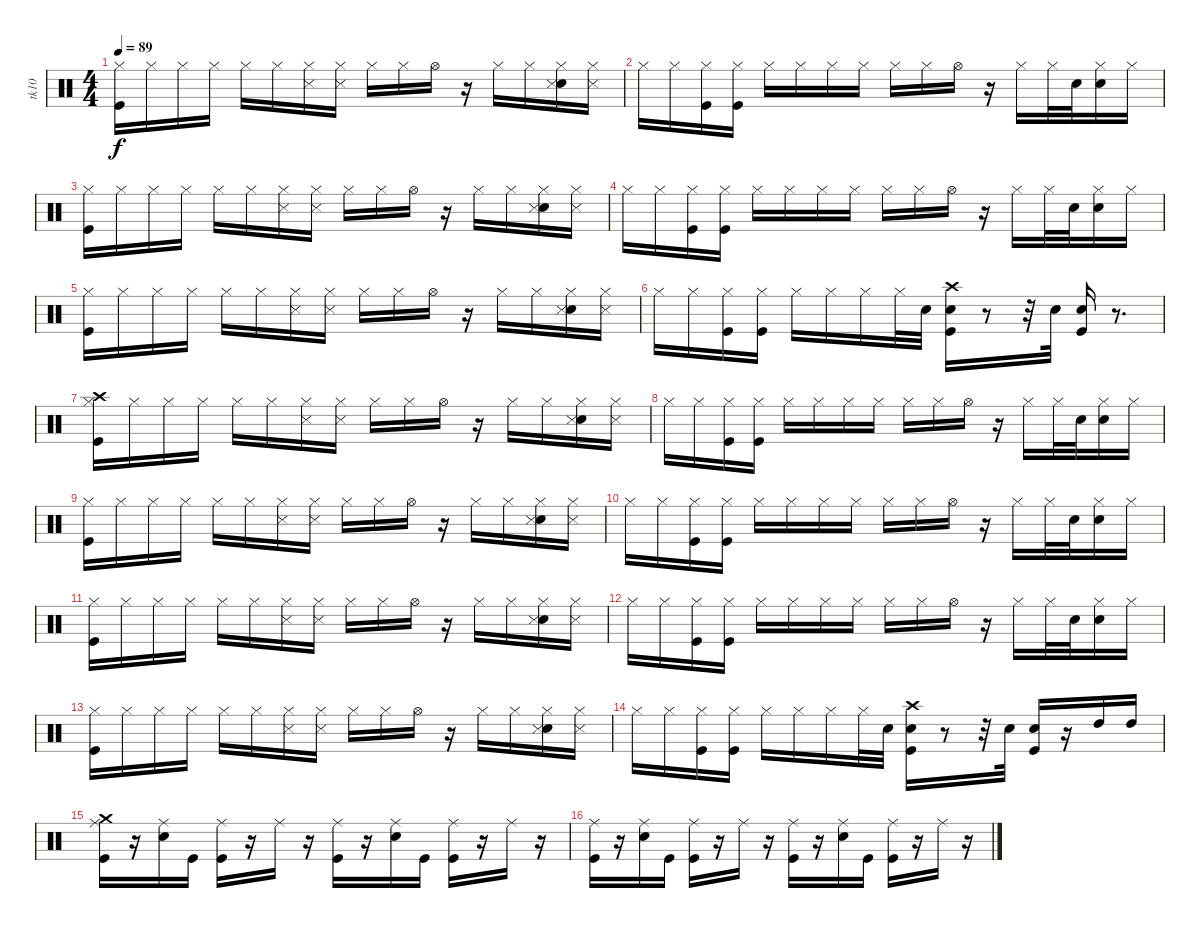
\track ("tk10" "tk10") {instrument percussion}
\staff {score}
\articulation defaults
\ts (4 4)
\tempo 89
\clef neutral
\ks c
("Kick (hit)" "Hi-Hat (closed)").16{dy f} "Hi-Hat (closed)".16 "Hi-Hat (closed)".16 "Hi-Hat (closed)".16 "Hi-Hat (closed)".16 "Hi-Hat (closed)".16 ("Snare (side stick) 3" "Hi-Hat (closed)").16 ("Snare (side stick) 3" "Hi-Hat (closed)").16 "Hi-Hat (closed)".16 "Hi-Hat (closed)".16 "Hi-Hat (open)".16 r.16 "Hi-Hat (closed)".16 "Hi-Hat (closed)".16 ("Snare (hit) 2" "Snare (side stick) 3" "Hi-Hat (closed)").16 ("Snare (side stick) 3" "Hi-Hat (closed)").16 |
"Hi-Hat (closed)".16 "Hi-Hat (closed)".16 ("Hi-Hat (closed)" "Kick (hit)").16 ("Hi-Hat (closed)" "Kick (hit)").16 "Hi-Hat (closed)".16 "Hi-Hat (closed)".16 "Hi-Hat (closed)".16 "Hi-Hat (closed)".16 "Hi-Hat (closed)".16 "Hi-Hat (closed)".16 "Hi-Hat (open)".16 r.16 "Hi-Hat (closed)".16 "Hi-Hat (closed)".32 "Snare (hit) 2".32 ("Snare (hit) 2" "Hi-Hat (closed)").16 "Hi-Hat (closed)".16 |
("Kick (hit)" "Hi-Hat (closed)").16 "Hi-Hat (closed)".16 "Hi-Hat (closed)".16 "Hi-Hat (closed)".16 "Hi-Hat (closed)".16 "Hi-Hat (closed)".16 ("Snare (side stick) 3" "Hi-Hat (closed)").16 ("Snare (side stick) 3" "Hi-Hat (closed)").16 "Hi-Hat (closed)".16 "Hi-Hat (closed)".16 "Hi-Hat (open)".16 r.16 "Hi-Hat (closed)".16 "Hi-Hat (closed)".16 ("Snare (hit) 2" "Snare (side stick) 3" "Hi-Hat (closed)").16 ("Snare (side stick) 3" "Hi-Hat (closed)").16 |
"Hi-Hat (closed)".16 "Hi-Hat (closed)".16 ("Hi-Hat (closed)" "Kick (hit)").16 ("Hi-Hat (closed)" "Kick (hit)").16 "Hi-Hat (closed)".16 "Hi-Hat (closed)".16 "Hi-Hat (closed)".16 "Hi-Hat (closed)".16 "Hi-Hat (closed)".16 "Hi-Hat (closed)".16 "Hi-Hat (open)".16 r.16 "Hi-Hat (closed)".16 "Hi-Hat (closed)".32 "Snare (hit) 2".32 ("Snare (hit) 2" "Hi-Hat (closed)").16 "Hi-Hat (closed)".16 |
("Kick (hit)" "Hi-Hat (closed)").16 "Hi-Hat (closed)".16 "Hi-Hat (closed)".16 "Hi-Hat (closed)".16 "Hi-Hat (closed)".16 "Hi-Hat (closed)".16 ("Snare (side stick) 3" "Hi-Hat (closed)").16 ("Snare (side stick) 3" "Hi-Hat (closed)").16 "Hi-Hat (closed)".16 "Hi-Hat (closed)".16 "Hi-Hat (open)".16 r.16 "Hi-Hat (closed)".16 "Hi-Hat (closed)".16 ("Snare (hit) 2" "Snare (side stick) 3" "Hi-Hat (closed)").16 ("Snare (side stick) 3" "Hi-Hat (closed)").16 |
"Hi-Hat (closed)".16 "Hi-Hat (closed)".16 ("Hi-Hat (closed)" "Kick (hit)").16 ("Hi-Hat (closed)" "Kick (hit)").16 "Hi-Hat (closed)".16 "Hi-Hat (closed)".16 "Hi-Hat (closed)".16 "Hi-Hat (closed)".32 "Snare (hit) 2".32 ("Snare (hit) 2" "Kick (hit)" "Crash high (hit)").16 r.8 r.32 "Snare (hit) 2".32 ("Kick (hit)" "Snare (hit) 2").16 r.8{d} |
("Kick (hit)" "Crash high (hit)" "Hi-Hat (closed)").16 "Hi-Hat (closed)".16 "Hi-Hat (closed)".16 "Hi-Hat (closed)".16 "Hi-Hat (closed)".16 "Hi-Hat (closed)".16 ("Snare (side stick) 3" "Hi-Hat (closed)").16 ("Snare (side stick) 3" "Hi-Hat (closed)").16 "Hi-Hat (closed)".16 "Hi-Hat (closed)".16 "Hi-Hat (open)".16 r.16 "Hi-Hat (closed)".16 "Hi-Hat (closed)".16 ("Snare (hit) 2" "Snare (side stick) 3" "Hi-Hat (closed)").16 ("Snare (side stick) 3" "Hi-Hat (closed)").16 |
"Hi-Hat (closed)".16 "Hi-Hat (closed)".16 ("Hi-Hat (closed)" "Kick (hit)").16 ("Hi-Hat (closed)" "Kick (hit)").16 "Hi-Hat (closed)".16 "Hi-Hat (closed)".16 "Hi-Hat (closed)".16 "Hi-Hat (closed)".16 "Hi-Hat (closed)".16 "Hi-Hat (closed)".16 "Hi-Hat (open)".16 r.16 "Hi-Hat (closed)".16 "Hi-Hat (closed)".32 "Snare (hit) 2".32 ("Snare (hit) 2" "Hi-Hat (closed)").16 "Hi-Hat (closed)".16 |
("Kick (hit)" "Hi-Hat (closed)").16 "Hi-Hat (closed)".16 "Hi-Hat (closed)".16 "Hi-Hat (closed)".16 "Hi-Hat (closed)".16 "Hi-Hat (closed)".16 ("Snare (side stick) 3" "Hi-Hat (closed)").16 ("Snare (side stick) 3" "Hi-Hat (closed)").16 "Hi-Hat (closed)".16 "Hi-Hat (closed)".16 "Hi-Hat (open)".16 r.16 "Hi-Hat (closed)".16 "Hi-Hat (closed)".16 ("Snare (hit) 2" "Snare (side stick) 3" "Hi-Hat (closed)").16 ("Snare (side stick) 3" "Hi-Hat (closed)").16 |
"Hi-Hat (closed)".16 "Hi-Hat (closed)".16 ("Hi-Hat (closed)" "Kick (hit)").16 ("Hi-Hat (closed)" "Kick (hit)").16 "Hi-Hat (closed)".16 "Hi-Hat (closed)".16 "Hi-Hat (closed)".16 "Hi-Hat (closed)".16 "Hi-Hat (closed)".16 "Hi-Hat (closed)".16 "Hi-Hat (open)".16 r.16 "Hi-Hat (closed)".16 "Hi-Hat (closed)".32 "Snare (hit) 2".32 ("Snare (hit) 2" "Hi-Hat (closed)").16 "Hi-Hat (closed)".16 |
("Kick (hit)" "Hi-Hat (closed)").16 "Hi-Hat (closed)".16 "Hi-Hat (closed)".16 "Hi-Hat (closed)".16 "Hi-Hat (closed)".16 "Hi-Hat (closed)".16 ("Snare (side stick) 3" "Hi-Hat (closed)").16 ("Snare (side stick) 3" "Hi-Hat (closed)").16 "Hi-Hat (closed)".16 "Hi-Hat (closed)".16 "Hi-Hat (open)".16 r.16 "Hi-Hat (closed)".16 "Hi-Hat (closed)".16 ("Snare (hit) 2" "Snare (side stick) 3" "Hi-Hat (closed)").16 ("Snare (side stick) 3" "Hi-Hat (closed)").16 |
"Hi-Hat (closed)".16 "Hi-Hat (closed)".16 ("Hi-Hat (closed)" "Kick (hit)").16 ("Hi-Hat (closed)" "Kick (hit)").16 "Hi-Hat (closed)".16 "Hi-Hat (closed)".16 "Hi-Hat (closed)".16 "Hi-Hat (closed)".16 "Hi-Hat (closed)".16 "Hi-Hat (closed)".16 "Hi-Hat (open)".16 r.16 "Hi-Hat (closed)".16 "Hi-Hat (closed)".32 "Snare (hit) 2".32 ("Snare (hit) 2" "Hi-Hat (closed)").16 "Hi-Hat (closed)".16 |
("Kick (hit)" "Hi-Hat (closed)").16 "Hi-Hat (closed)".16 "Hi-Hat (closed)".16 "Hi-Hat (closed)".16 "Hi-Hat (closed)".16 "Hi-Hat (closed)".16 ("Snare (side stick) 3" "Hi-Hat (closed)").16 ("Snare (side stick) 3" "Hi-Hat (closed)").16 "Hi-Hat (closed)".16 "Hi-Hat (closed)".16 "Hi-Hat (open)".16 r.16 "Hi-Hat (closed)".16 "Hi-Hat (closed)".16 ("Snare (hit) 2" "Snare (side stick) 3" "Hi-Hat (closed)").16 ("Snare (side stick) 3" "Hi-Hat (closed)").16 |
"Hi-Hat (closed)".16 "Hi-Hat (closed)".16 ("Hi-Hat (closed)" "Kick (hit)").16 ("Hi-Hat (closed)" "Kick (hit)").16 "Hi-Hat (closed)".16 "Hi-Hat (closed)".16 "Hi-Hat (closed)".16 "Hi-Hat (closed)".32 "Snare (hit) 2".32 ("Snare (hit) 2" "Kick (hit)" "Crash high (hit)").16 r.8 r.32 "Snare (hit) 2".32 ("Kick (hit)" "Snare (hit) 2").16 r.16 "High Tom (hit)".16 "High Tom (hit)".16 |
("Ride (middle)" "Crash medium (hit)" "Kick (hit)").16 r.16 ("Snare (hit) 2" "Ride (middle)").16 "Kick (hit)".16 ("Ride (middle)" "Kick (hit)").16 r.16 "Ride (middle)".16 r.16 ("Ride (middle)" "Kick (hit)").16 r.16 ("Snare (hit) 2" "Ride (middle)").16 "Kick (hit)".16 ("Ride (middle)" "Kick (hit)").16 r.16 "Ride (middle)".16 r.16 |
("Ride (middle)" "Kick (hit)").16 r.16 ("Snare (hit) 2" "Ride (middle)").16 "Kick (hit)".16 ("Ride (middle)" "Kick (hit)").16 r.16 "Ride (middle)".16 r.16 ("Ride (middle)" "Kick (hit)").16 r.16 ("Snare (hit) 2" "Ride (middle)").16 "Kick (hit)".16 ("Ride (middle)" "Kick (hit)").16 r.16 "Ride (middle)".16 r.16
